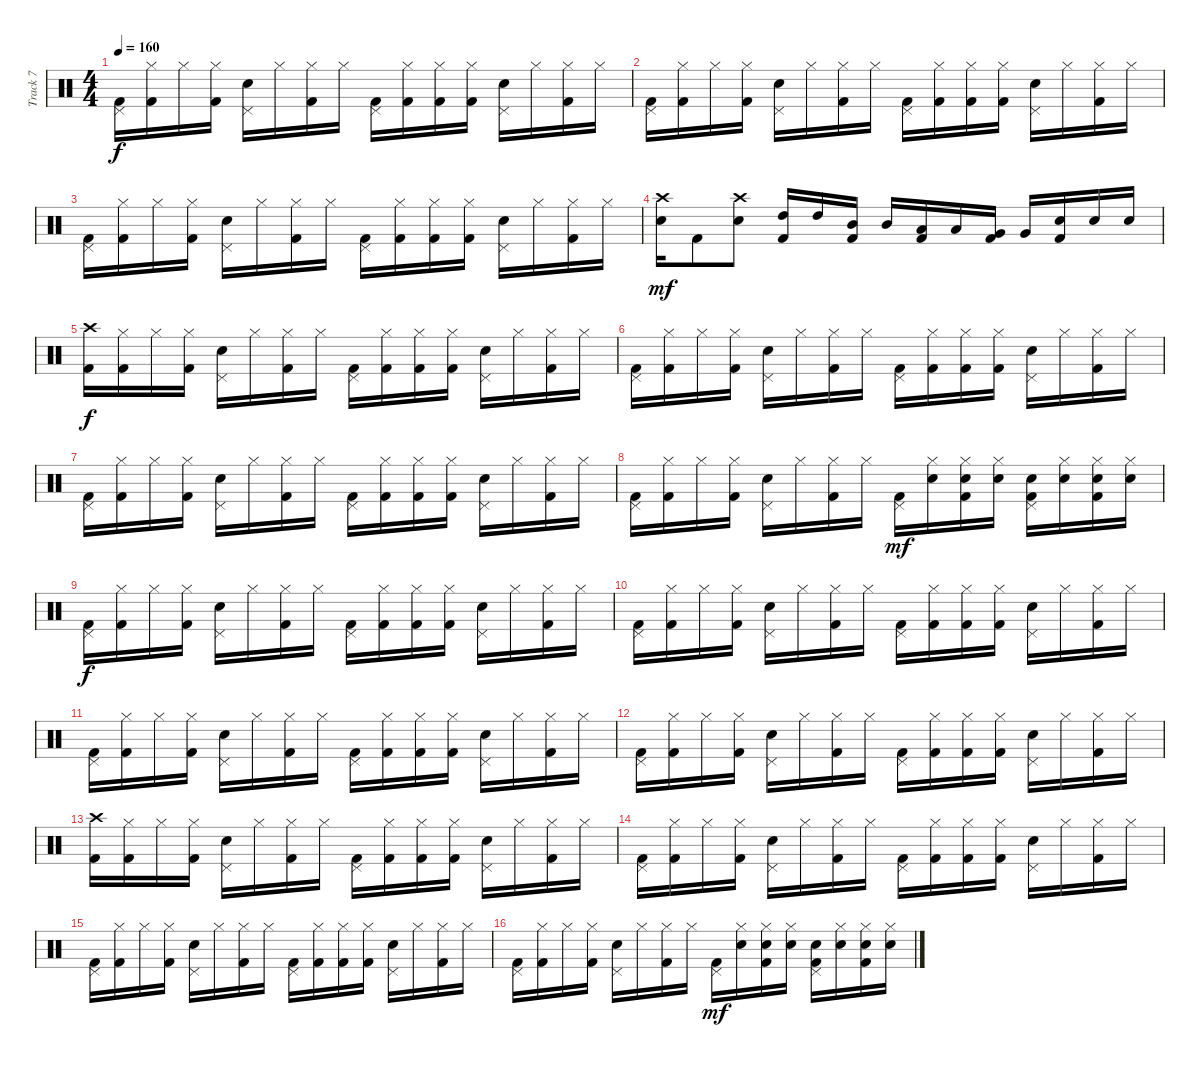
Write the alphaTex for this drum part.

\track ("Track 7" "Track 7") {instrument percussion}
\staff {score}
\articulation defaults
\ts (4 4)
\tempo 160
\clef neutral
\ks c
("Pedal Hi-Hat (hit)" "Kick (hit) 2").16{dy f} ("Hi-Hat (closed)" "Kick (hit) 2").16 "Hi-Hat (closed)".16 ("Hi-Hat (closed)" "Kick (hit) 2").16 ("Pedal Hi-Hat (hit)" "Snare (hit) 2").16 "Hi-Hat (closed)".16 ("Hi-Hat (closed)" "Kick (hit) 2").16 "Hi-Hat (closed)".16 ("Pedal Hi-Hat (hit)" "Kick (hit) 2").16 ("Hi-Hat (closed)" "Kick (hit) 2").16 ("Hi-Hat (closed)" "Kick (hit) 2").16 ("Hi-Hat (closed)" "Kick (hit) 2").16 ("Pedal Hi-Hat (hit)" "Snare (hit) 2").16 "Hi-Hat (closed)".16 ("Hi-Hat (closed)" "Kick (hit) 2").16 "Hi-Hat (closed)".16 |
("Pedal Hi-Hat (hit)" "Kick (hit) 2").16 ("Hi-Hat (closed)" "Kick (hit) 2").16 "Hi-Hat (closed)".16 ("Hi-Hat (closed)" "Kick (hit) 2").16 ("Pedal Hi-Hat (hit)" "Snare (hit) 2").16 "Hi-Hat (closed)".16 ("Hi-Hat (closed)" "Kick (hit) 2").16 "Hi-Hat (closed)".16 ("Pedal Hi-Hat (hit)" "Kick (hit) 2").16 ("Hi-Hat (closed)" "Kick (hit) 2").16 ("Hi-Hat (closed)" "Kick (hit) 2").16 ("Hi-Hat (closed)" "Kick (hit) 2").16 ("Pedal Hi-Hat (hit)" "Snare (hit) 2").16 "Hi-Hat (closed)".16 ("Hi-Hat (closed)" "Kick (hit) 2").16 "Hi-Hat (closed)".16 |
("Pedal Hi-Hat (hit)" "Kick (hit) 2").16 ("Hi-Hat (closed)" "Kick (hit) 2").16 "Hi-Hat (closed)".16 ("Hi-Hat (closed)" "Kick (hit) 2").16 ("Pedal Hi-Hat (hit)" "Snare (hit) 2").16 "Hi-Hat (closed)".16 ("Hi-Hat (closed)" "Kick (hit) 2").16 "Hi-Hat (closed)".16 ("Pedal Hi-Hat (hit)" "Kick (hit) 2").16 ("Hi-Hat (closed)" "Kick (hit) 2").16 ("Hi-Hat (closed)" "Kick (hit) 2").16 ("Hi-Hat (closed)" "Kick (hit) 2").16 ("Pedal Hi-Hat (hit)" "Snare (hit) 2").16 "Hi-Hat (closed)".16 ("Hi-Hat (closed)" "Kick (hit) 2").16 "Hi-Hat (closed)".16 |
("Crash high (hit)" "Snare (hit) 2").16{dy mf} "Kick (hit) 2".8 ("Crash high (hit)" "Snare (hit) 2").8 ("High Tom (hit)" "Kick (hit) 2").16 "High Tom (hit)".16 ("Mid Tom (hit)" "Kick (hit) 2").16 "Mid Tom (hit)".16 ("Low Tom (hit)" "Kick (hit) 2").16 "Low Tom (hit)".16 ("Very Low Tom (hit)" "Kick (hit) 2").16 "Very Low Tom (hit)".16 ("Snare (hit) 2" "Kick (hit) 2").16 "Snare (hit) 2".16 "Snare (hit) 2".16 |
("Crash high (hit)" "Kick (hit) 2").16{dy f} ("Hi-Hat (closed)" "Kick (hit) 2").16 "Hi-Hat (closed)".16 ("Hi-Hat (closed)" "Kick (hit) 2").16 ("Pedal Hi-Hat (hit)" "Snare (hit) 2").16 "Hi-Hat (closed)".16 ("Hi-Hat (closed)" "Kick (hit) 2").16 "Hi-Hat (closed)".16 ("Pedal Hi-Hat (hit)" "Kick (hit) 2").16 ("Hi-Hat (closed)" "Kick (hit) 2").16 ("Hi-Hat (closed)" "Kick (hit) 2").16 ("Hi-Hat (closed)" "Kick (hit) 2").16 ("Pedal Hi-Hat (hit)" "Snare (hit) 2").16 "Hi-Hat (closed)".16 ("Hi-Hat (closed)" "Kick (hit) 2").16 "Hi-Hat (closed)".16 |
("Pedal Hi-Hat (hit)" "Kick (hit) 2").16 ("Hi-Hat (closed)" "Kick (hit) 2").16 "Hi-Hat (closed)".16 ("Hi-Hat (closed)" "Kick (hit) 2").16 ("Pedal Hi-Hat (hit)" "Snare (hit) 2").16 "Hi-Hat (closed)".16 ("Hi-Hat (closed)" "Kick (hit) 2").16 "Hi-Hat (closed)".16 ("Pedal Hi-Hat (hit)" "Kick (hit) 2").16 ("Hi-Hat (closed)" "Kick (hit) 2").16 ("Hi-Hat (closed)" "Kick (hit) 2").16 ("Hi-Hat (closed)" "Kick (hit) 2").16 ("Pedal Hi-Hat (hit)" "Snare (hit) 2").16 "Hi-Hat (closed)".16 ("Hi-Hat (closed)" "Kick (hit) 2").16 "Hi-Hat (closed)".16 |
("Pedal Hi-Hat (hit)" "Kick (hit) 2").16 ("Hi-Hat (closed)" "Kick (hit) 2").16 "Hi-Hat (closed)".16 ("Hi-Hat (closed)" "Kick (hit) 2").16 ("Pedal Hi-Hat (hit)" "Snare (hit) 2").16 "Hi-Hat (closed)".16 ("Hi-Hat (closed)" "Kick (hit) 2").16 "Hi-Hat (closed)".16 ("Pedal Hi-Hat (hit)" "Kick (hit) 2").16 ("Hi-Hat (closed)" "Kick (hit) 2").16 ("Hi-Hat (closed)" "Kick (hit) 2").16 ("Hi-Hat (closed)" "Kick (hit) 2").16 ("Pedal Hi-Hat (hit)" "Snare (hit) 2").16 "Hi-Hat (closed)".16 ("Hi-Hat (closed)" "Kick (hit) 2").16 "Hi-Hat (closed)".16 |
("Pedal Hi-Hat (hit)" "Kick (hit) 2").16 ("Hi-Hat (closed)" "Kick (hit) 2").16 "Hi-Hat (closed)".16 ("Hi-Hat (closed)" "Kick (hit) 2").16 ("Pedal Hi-Hat (hit)" "Snare (hit) 2").16 "Hi-Hat (closed)".16 ("Hi-Hat (closed)" "Kick (hit) 2").16 "Hi-Hat (closed)".16 ("Pedal Hi-Hat (hit)" "Kick (hit) 2").16{dy mf} ("Hi-Hat (closed)" "Snare (hit) 2").16 ("Hi-Hat (closed)" "Snare (hit) 2" "Kick (hit) 2").16 ("Hi-Hat (closed)" "Snare (hit) 2").16 ("Pedal Hi-Hat (hit)" "Snare (hit) 2" "Kick (hit) 2").16 ("Hi-Hat (closed)" "Snare (hit) 2").16 ("Hi-Hat (closed)" "Snare (hit) 2" "Kick (hit) 2").16 ("Hi-Hat (closed)" "Snare (hit) 2").16 |
("Pedal Hi-Hat (hit)" "Kick (hit) 2").16{dy f} ("Hi-Hat (closed)" "Kick (hit) 2").16 "Hi-Hat (closed)".16 ("Hi-Hat (closed)" "Kick (hit) 2").16 ("Pedal Hi-Hat (hit)" "Snare (hit) 2").16 "Hi-Hat (closed)".16 ("Hi-Hat (closed)" "Kick (hit) 2").16 "Hi-Hat (closed)".16 ("Pedal Hi-Hat (hit)" "Kick (hit) 2").16 ("Hi-Hat (closed)" "Kick (hit) 2").16 ("Hi-Hat (closed)" "Kick (hit) 2").16 ("Hi-Hat (closed)" "Kick (hit) 2").16 ("Pedal Hi-Hat (hit)" "Snare (hit) 2").16 "Hi-Hat (closed)".16 ("Hi-Hat (closed)" "Kick (hit) 2").16 "Hi-Hat (closed)".16 |
("Pedal Hi-Hat (hit)" "Kick (hit) 2").16 ("Hi-Hat (closed)" "Kick (hit) 2").16 "Hi-Hat (closed)".16 ("Hi-Hat (closed)" "Kick (hit) 2").16 ("Pedal Hi-Hat (hit)" "Snare (hit) 2").16 "Hi-Hat (closed)".16 ("Hi-Hat (closed)" "Kick (hit) 2").16 "Hi-Hat (closed)".16 ("Pedal Hi-Hat (hit)" "Kick (hit) 2").16 ("Hi-Hat (closed)" "Kick (hit) 2").16 ("Hi-Hat (closed)" "Kick (hit) 2").16 ("Hi-Hat (closed)" "Kick (hit) 2").16 ("Pedal Hi-Hat (hit)" "Snare (hit) 2").16 "Hi-Hat (closed)".16 ("Hi-Hat (closed)" "Kick (hit) 2").16 "Hi-Hat (closed)".16 |
("Pedal Hi-Hat (hit)" "Kick (hit) 2").16 ("Hi-Hat (closed)" "Kick (hit) 2").16 "Hi-Hat (closed)".16 ("Hi-Hat (closed)" "Kick (hit) 2").16 ("Pedal Hi-Hat (hit)" "Snare (hit) 2").16 "Hi-Hat (closed)".16 ("Hi-Hat (closed)" "Kick (hit) 2").16 "Hi-Hat (closed)".16 ("Pedal Hi-Hat (hit)" "Kick (hit) 2").16 ("Hi-Hat (closed)" "Kick (hit) 2").16 ("Hi-Hat (closed)" "Kick (hit) 2").16 ("Hi-Hat (closed)" "Kick (hit) 2").16 ("Pedal Hi-Hat (hit)" "Snare (hit) 2").16 "Hi-Hat (closed)".16 ("Hi-Hat (closed)" "Kick (hit) 2").16 "Hi-Hat (closed)".16 |
("Pedal Hi-Hat (hit)" "Kick (hit) 2").16 ("Hi-Hat (closed)" "Kick (hit) 2").16 "Hi-Hat (closed)".16 ("Hi-Hat (closed)" "Kick (hit) 2").16 ("Pedal Hi-Hat (hit)" "Snare (hit) 2").16 "Hi-Hat (closed)".16 ("Hi-Hat (closed)" "Kick (hit) 2").16 "Hi-Hat (closed)".16 ("Pedal Hi-Hat (hit)" "Kick (hit) 2").16 ("Hi-Hat (closed)" "Kick (hit) 2").16 ("Hi-Hat (closed)" "Kick (hit) 2").16 ("Hi-Hat (closed)" "Kick (hit) 2").16 ("Pedal Hi-Hat (hit)" "Snare (hit) 2").16 "Hi-Hat (closed)".16 ("Hi-Hat (closed)" "Kick (hit) 2").16 "Hi-Hat (closed)".16 |
("Crash high (hit)" "Kick (hit) 2").16 ("Hi-Hat (closed)" "Kick (hit) 2").16 "Hi-Hat (closed)".16 ("Hi-Hat (closed)" "Kick (hit) 2").16 ("Pedal Hi-Hat (hit)" "Snare (hit) 2").16 "Hi-Hat (closed)".16 ("Hi-Hat (closed)" "Kick (hit) 2").16 "Hi-Hat (closed)".16 ("Pedal Hi-Hat (hit)" "Kick (hit) 2").16 ("Hi-Hat (closed)" "Kick (hit) 2").16 ("Hi-Hat (closed)" "Kick (hit) 2").16 ("Hi-Hat (closed)" "Kick (hit) 2").16 ("Pedal Hi-Hat (hit)" "Snare (hit) 2").16 "Hi-Hat (closed)".16 ("Hi-Hat (closed)" "Kick (hit) 2").16 "Hi-Hat (closed)".16 |
("Pedal Hi-Hat (hit)" "Kick (hit) 2").16 ("Hi-Hat (closed)" "Kick (hit) 2").16 "Hi-Hat (closed)".16 ("Hi-Hat (closed)" "Kick (hit) 2").16 ("Pedal Hi-Hat (hit)" "Snare (hit) 2").16 "Hi-Hat (closed)".16 ("Hi-Hat (closed)" "Kick (hit) 2").16 "Hi-Hat (closed)".16 ("Pedal Hi-Hat (hit)" "Kick (hit) 2").16 ("Hi-Hat (closed)" "Kick (hit) 2").16 ("Hi-Hat (closed)" "Kick (hit) 2").16 ("Hi-Hat (closed)" "Kick (hit) 2").16 ("Pedal Hi-Hat (hit)" "Snare (hit) 2").16 "Hi-Hat (closed)".16 ("Hi-Hat (closed)" "Kick (hit) 2").16 "Hi-Hat (closed)".16 |
("Pedal Hi-Hat (hit)" "Kick (hit) 2").16 ("Hi-Hat (closed)" "Kick (hit) 2").16 "Hi-Hat (closed)".16 ("Hi-Hat (closed)" "Kick (hit) 2").16 ("Pedal Hi-Hat (hit)" "Snare (hit) 2").16 "Hi-Hat (closed)".16 ("Hi-Hat (closed)" "Kick (hit) 2").16 "Hi-Hat (closed)".16 ("Pedal Hi-Hat (hit)" "Kick (hit) 2").16 ("Hi-Hat (closed)" "Kick (hit) 2").16 ("Hi-Hat (closed)" "Kick (hit) 2").16 ("Hi-Hat (closed)" "Kick (hit) 2").16 ("Pedal Hi-Hat (hit)" "Snare (hit) 2").16 "Hi-Hat (closed)".16 ("Hi-Hat (closed)" "Kick (hit) 2").16 "Hi-Hat (closed)".16 |
("Pedal Hi-Hat (hit)" "Kick (hit) 2").16 ("Hi-Hat (closed)" "Kick (hit) 2").16 "Hi-Hat (closed)".16 ("Hi-Hat (closed)" "Kick (hit) 2").16 ("Pedal Hi-Hat (hit)" "Snare (hit) 2").16 "Hi-Hat (closed)".16 ("Hi-Hat (closed)" "Kick (hit) 2").16 "Hi-Hat (closed)".16 ("Pedal Hi-Hat (hit)" "Kick (hit) 2").16{dy mf} ("Hi-Hat (closed)" "Snare (hit) 2").16 ("Hi-Hat (closed)" "Snare (hit) 2" "Kick (hit) 2").16 ("Hi-Hat (closed)" "Snare (hit) 2").16 ("Pedal Hi-Hat (hit)" "Snare (hit) 2" "Kick (hit) 2").16 ("Hi-Hat (closed)" "Snare (hit) 2").16 ("Hi-Hat (closed)" "Snare (hit) 2" "Kick (hit) 2").16 ("Hi-Hat (closed)" "Snare (hit) 2").16
